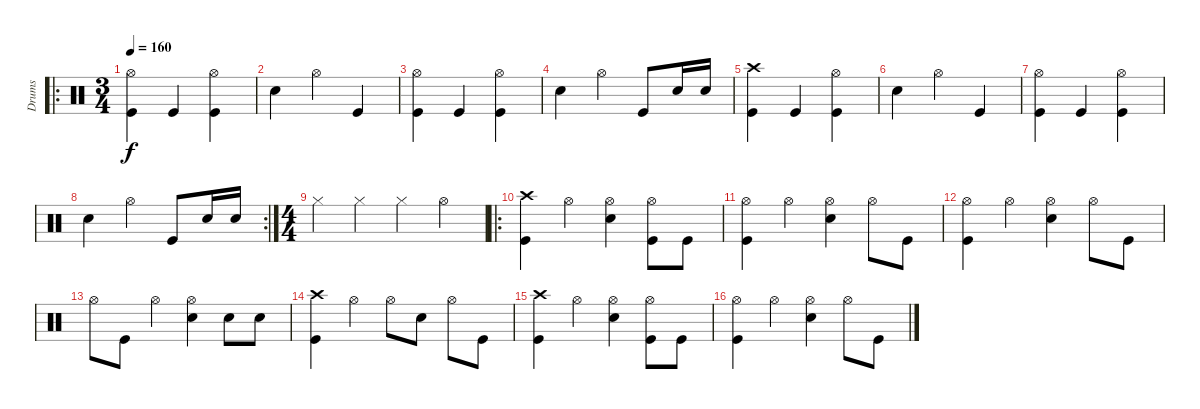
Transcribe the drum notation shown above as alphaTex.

\track ("Drums" "Drums") {instrument percussion}
\staff {score}
\articulation defaults
\ro
\ts (3 4)
\tempo 160
\clef neutral
\ks c
("Hi-Hat (open)" "Kick (hit)").4{dy f} "Kick (hit)".4 ("Hi-Hat (open)" "Kick (hit)").4 |
"Snare (hit) 2".4 "Hi-Hat (open)".4 "Kick (hit)".4 |
("Hi-Hat (open)" "Kick (hit)").4 "Kick (hit)".4 ("Hi-Hat (open)" "Kick (hit)").4 |
"Snare (hit) 2".4 "Hi-Hat (open)".4 "Kick (hit)".8 "Snare (hit) 2".16 "Snare (hit) 2".16 |
("Crash high (hit)" "Kick (hit)").4 "Kick (hit)".4 ("Hi-Hat (open)" "Kick (hit)").4 |
"Snare (hit) 2".4 "Hi-Hat (open)".4 "Kick (hit)".4 |
("Hi-Hat (open)" "Kick (hit)").4 "Kick (hit)".4 ("Hi-Hat (open)" "Kick (hit)").4 |
\rc 2 "Snare (hit) 2".4 "Hi-Hat (open)".4 "Kick (hit)".8 "Snare (hit) 2".16 "Snare (hit) 2".16
|
\ts (4 4)
"Hi-Hat (closed)".4 "Hi-Hat (closed)".4 "Hi-Hat (closed)".4 "Hi-Hat (open)".4 |
\ro
("Crash high (hit)" "Kick (hit)").4 "Hi-Hat (open)".4 ("Hi-Hat (open)" "Snare (hit) 2").4 ("Hi-Hat (open)" "Kick (hit)").8 "Kick (hit)".8 |
("Hi-Hat (open)" "Kick (hit)").4 "Hi-Hat (open)".4 ("Hi-Hat (open)" "Snare (hit) 2").4 "Hi-Hat (open)".8 "Kick (hit)".8 |
("Hi-Hat (open)" "Kick (hit)").4 "Hi-Hat (open)".4 ("Hi-Hat (open)" "Snare (hit) 2").4 "Hi-Hat (open)".8 "Kick (hit)".8 |
"Hi-Hat (open)".8 "Kick (hit)".8 "Hi-Hat (open)".4 ("Hi-Hat (open)" "Snare (hit) 2").4 "Snare (hit) 2".8 "Snare (hit) 2".8 |
("Crash high (hit)" "Kick (hit)").4 "Hi-Hat (open)".4 "Hi-Hat (open)".8 "Snare (hit) 2".8 "Hi-Hat (open)".8 "Kick (hit)".8 |
("Crash high (hit)" "Kick (hit)").4 "Hi-Hat (open)".4 ("Hi-Hat (open)" "Snare (hit) 2").4 ("Hi-Hat (open)" "Kick (hit)").8 "Kick (hit)".8 |
("Hi-Hat (open)" "Kick (hit)").4 "Hi-Hat (open)".4 ("Hi-Hat (open)" "Snare (hit) 2").4 "Hi-Hat (open)".8 "Kick (hit)".8
